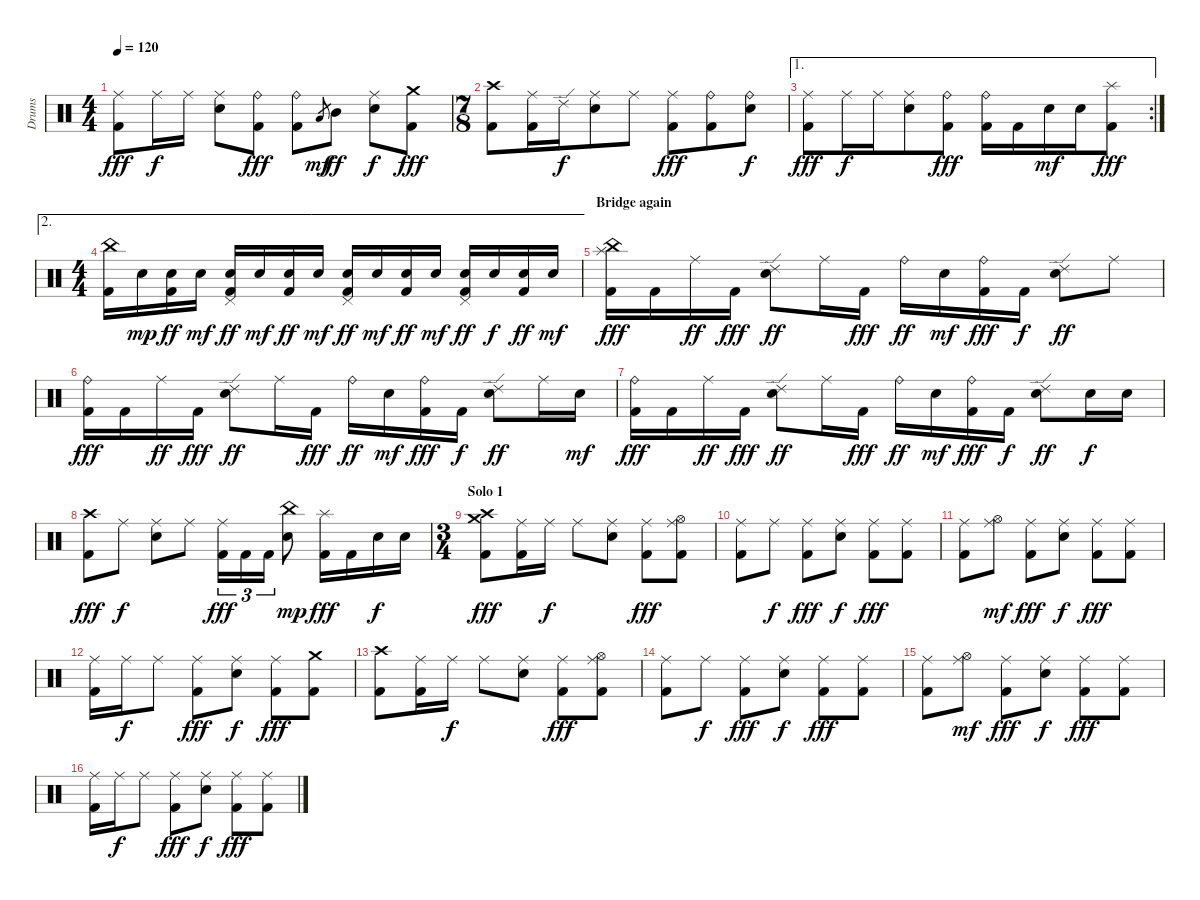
\track ("Drums" "Drums") {instrument percussion}
\staff {score}
\articulation defaults
\ts (4 4)
\tempo 120
\clef neutral
\ks c
("Ride (middle)" "Kick (hit) 2").8{dy fff} "Ride (middle)".16{dy f} "Ride (middle)".16 ("Ride (middle)" "Electric Snare (hit)").8 ("Ride (bell)" "Kick (hit) 2").8{dy fff} ("Ride (bell)" "Kick (hit) 2").8 "Low Tom (hit)".8{gr dy mf} "Mid Tom (hit)".8{dy ff} ("Ride (middle)" "Electric Snare (hit)").8{dy f} ("Crash medium (hit)" "Kick (hit) 2").8{dy fff} |
\ts (7 8)
("Crash high (hit)" "Kick (hit) 2").8 ("Ride (middle)" "Kick (hit) 2").16 "Ride (edge) 2".16{dy f} ("Ride (middle)" "Electric Snare (hit)").8 "Ride (middle)".8 ("Ride (middle)" "Kick (hit) 2").8{dy fff} ("Ride (bell)" "Kick (hit) 2").8 ("Ride (bell)" "Electric Snare (hit)").8{dy f} |
\ae 1
\rc 2
("Ride (middle)" "Kick (hit) 2").8{dy fff} "Ride (middle)".16{dy f} "Ride (middle)".16 ("Ride (middle)" "Electric Snare (hit)").8 ("Ride (bell)" "Kick (hit) 2").8{dy fff} ("Ride (bell)" "Kick (hit) 2").16 "Kick (hit) 2".16 "Electric Snare (hit)".16{dy mf} "Electric Snare (hit)".16 ("Splash (hit)" "Kick (hit) 2").8{dy fff} |
\ae 2
\ts (4 4)
("China (hit)" "Kick (hit) 2").16 "Electric Snare (hit)".16{dy mp} ("Electric Snare (hit)" "Kick (hit) 2").16{dy ff} "Electric Snare (hit)".16{dy mf} ("Pedal Hi-Hat (hit)" "Electric Snare (hit)" "Kick (hit) 2").16{dy ff} "Electric Snare (hit)".16{dy mf} ("Electric Snare (hit)" "Kick (hit) 2").16{dy ff} "Electric Snare (hit)".16{dy mf} ("Pedal Hi-Hat (hit)" "Electric Snare (hit)" "Kick (hit) 2").16{dy ff} "Electric Snare (hit)".16{dy mf} ("Electric Snare (hit)" "Kick (hit) 2").16{dy ff} "Electric Snare (hit)".16{dy mf} ("Pedal Hi-Hat (hit)" "Electric Snare (hit)" "Kick (hit) 2").16{dy ff} "Electric Snare (hit)".16{dy f} ("Electric Snare (hit)" "Kick (hit) 2").16{dy ff} "Electric Snare (hit)".16{dy mf} |
\section ("" "Bridge again")
("China (hit)" "Splash (hit)" "Kick (hit) 2").16{dy fff} "Kick (hit) 2".16 "Ride (middle)".16{dy ff} "Kick (hit) 2".16{dy fff} ("Ride (edge) 2" "Electric Snare (hit)").8{dy ff} "Ride (middle)".16 "Kick (hit) 2".16{dy fff} "Ride (bell)".16{dy ff} "Electric Snare (hit)".16{dy mf} ("Ride (bell)" "Kick (hit) 2").16{dy fff} "Kick (hit) 2".16{dy f} ("Ride (edge) 2" "Electric Snare (hit)").8{dy ff} "Ride (middle)".8 |
("Ride (bell)" "Kick (hit) 2").16{dy fff} "Kick (hit) 2".16 "Ride (middle)".16{dy ff} "Kick (hit) 2".16{dy fff} ("Ride (edge) 2" "Electric Snare (hit)").8{dy ff} "Ride (middle)".16 "Kick (hit) 2".16{dy fff} "Ride (bell)".16{dy ff} "Electric Snare (hit)".16{dy mf} ("Ride (bell)" "Kick (hit) 2").16{dy fff} "Kick (hit) 2".16{dy f} ("Ride (edge) 2" "Electric Snare (hit)").8{dy ff} "Ride (middle)".16 "Electric Snare (hit)".16{dy mf} |
("Ride (bell)" "Kick (hit) 2").16{dy fff} "Kick (hit) 2".16 "Ride (middle)".16{dy ff} "Kick (hit) 2".16{dy fff} ("Ride (edge) 2" "Electric Snare (hit)").8{dy ff} "Ride (middle)".16 "Kick (hit) 2".16{dy fff} "Ride (bell)".16{dy ff} "Electric Snare (hit)".16{dy mf} ("Ride (bell)" "Kick (hit) 2").16{dy fff} "Kick (hit) 2".16{dy f} ("Ride (edge) 2" "Electric Snare (hit)").8{dy ff} "Electric Snare (hit)".16{dy f} "Electric Snare (hit)".16 |
("Crash high (hit)" "Kick (hit) 2").8{dy fff} "Ride (middle)".8{dy f} ("Ride (middle)" "Electric Snare (hit)").8 "Ride (middle)".8 ("Ride (middle)" "Kick (hit) 2").16{tu (3 2) dy fff} "Kick (hit) 2".16{tu (3 2)} "Kick (hit) 2".16{tu (3 2)} ("China (hit)" "Electric Snare (hit)").8{dy mp} ("Splash (hit)" "Kick (hit) 2").16{dy fff} "Kick (hit) 2".16 "Electric Snare (hit)".16{dy f} "Electric Snare (hit)".16 |
\ts (3 4)
\section ("" "Solo 1")
("Crash medium (hit)" "Crash high (hit)" "Kick (hit) 2").8{dy fff} ("Ride (middle)" "Kick (hit) 2").16 "Ride (middle)".16{dy f} "Ride (middle)".8 ("Ride (middle)" "Electric Snare (hit)").8 ("Ride (middle)" "Kick (hit) 2").8{dy fff} ("Ride (middle)" "Hi-Hat (open)" "Kick (hit) 2").8 |
("Ride (middle)" "Kick (hit) 2").8 "Ride (middle)".8{dy f} ("Ride (middle)" "Kick (hit) 2").8{dy fff} ("Ride (middle)" "Electric Snare (hit)").8{dy f} ("Ride (middle)" "Kick (hit) 2").8{dy fff} ("Ride (middle)" "Kick (hit) 2").8 |
("Ride (middle)" "Kick (hit) 2").8 ("Ride (middle)" "Hi-Hat (open)").8{dy mf} ("Ride (middle)" "Kick (hit) 2").8{dy fff} ("Ride (middle)" "Electric Snare (hit)").8{dy f} ("Ride (middle)" "Kick (hit) 2").8{dy fff} ("Ride (middle)" "Kick (hit) 2").8 |
("Ride (middle)" "Kick (hit) 2").16 "Ride (middle)".16{dy f} "Ride (middle)".8 ("Ride (middle)" "Kick (hit) 2").8{dy fff} ("Ride (middle)" "Electric Snare (hit)").8{dy f} ("Ride (middle)" "Kick (hit) 2").8{dy fff} ("Crash medium (hit)" "Kick (hit) 2").8 |
("Crash high (hit)" "Kick (hit) 2").8 ("Ride (middle)" "Kick (hit) 2").16 "Ride (middle)".16{dy f} "Ride (middle)".8 ("Ride (middle)" "Electric Snare (hit)").8 ("Ride (middle)" "Kick (hit) 2").8{dy fff} ("Ride (middle)" "Hi-Hat (open)" "Kick (hit) 2").8 |
("Ride (middle)" "Kick (hit) 2").8 "Ride (middle)".8{dy f} ("Ride (middle)" "Kick (hit) 2").8{dy fff} ("Ride (middle)" "Electric Snare (hit)").8{dy f} ("Ride (middle)" "Kick (hit) 2").8{dy fff} ("Ride (middle)" "Kick (hit) 2").8 |
("Ride (middle)" "Kick (hit) 2").8 ("Ride (middle)" "Hi-Hat (open)").8{dy mf} ("Ride (middle)" "Kick (hit) 2").8{dy fff} ("Ride (middle)" "Electric Snare (hit)").8{dy f} ("Ride (middle)" "Kick (hit) 2").8{dy fff} ("Ride (middle)" "Kick (hit) 2").8 |
("Ride (middle)" "Kick (hit) 2").16 "Ride (middle)".16{dy f} "Ride (middle)".8 ("Ride (middle)" "Kick (hit) 2").8{dy fff} ("Ride (middle)" "Electric Snare (hit)").8{dy f} ("Ride (middle)" "Kick (hit) 2").8{dy fff} ("Ride (middle)" "Kick (hit) 2").8
